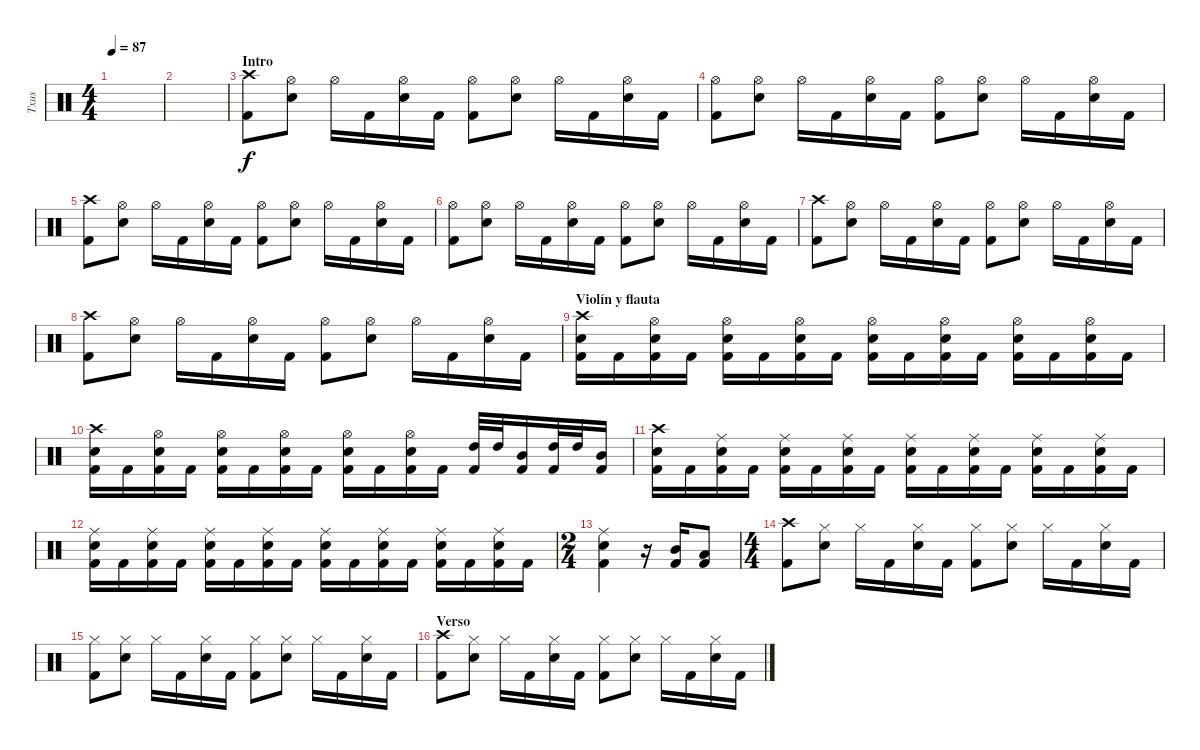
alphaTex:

\track ("Txus" "Txus") {instrument percussion}
\staff {score}
\articulation defaults
\ts (4 4)
\tempo 87
\clef neutral
\ks c
|
|
\section ("" "Intro")
("Kick (hit) 2" "Crash high (hit)").8 ("Electric Snare (hit)" "Hi-Hat (open)").8 "Hi-Hat (open)".16 "Kick (hit) 2".16 ("Electric Snare (hit)" "Hi-Hat (open)").16 "Kick (hit) 2".16 ("Kick (hit) 2" "Hi-Hat (open)").8 ("Electric Snare (hit)" "Hi-Hat (open)").8 "Hi-Hat (open)".16 "Kick (hit) 2".16 ("Electric Snare (hit)" "Hi-Hat (open)").16 "Kick (hit) 2".16 |
("Kick (hit) 2" "Hi-Hat (open)").8 ("Electric Snare (hit)" "Hi-Hat (open)").8 "Hi-Hat (open)".16 "Kick (hit) 2".16 ("Electric Snare (hit)" "Hi-Hat (open)").16 "Kick (hit) 2".16 ("Kick (hit) 2" "Hi-Hat (open)").8 ("Electric Snare (hit)" "Hi-Hat (open)").8 "Hi-Hat (open)".16 "Kick (hit) 2".16 ("Electric Snare (hit)" "Hi-Hat (open)").16 "Kick (hit) 2".16 |
("Kick (hit) 2" "Crash high (hit)").8 ("Electric Snare (hit)" "Hi-Hat (open)").8 "Hi-Hat (open)".16 "Kick (hit) 2".16 ("Electric Snare (hit)" "Hi-Hat (open)").16 "Kick (hit) 2".16 ("Kick (hit) 2" "Hi-Hat (open)").8 ("Electric Snare (hit)" "Hi-Hat (open)").8 "Hi-Hat (open)".16 "Kick (hit) 2".16 ("Electric Snare (hit)" "Hi-Hat (open)").16 "Kick (hit) 2".16 |
("Kick (hit) 2" "Hi-Hat (open)").8 ("Electric Snare (hit)" "Hi-Hat (open)").8 "Hi-Hat (open)".16 "Kick (hit) 2".16 ("Electric Snare (hit)" "Hi-Hat (open)").16 "Kick (hit) 2".16 ("Kick (hit) 2" "Hi-Hat (open)").8 ("Electric Snare (hit)" "Hi-Hat (open)").8 "Hi-Hat (open)".16 "Kick (hit) 2".16 ("Electric Snare (hit)" "Hi-Hat (open)").16 "Kick (hit) 2".16 |
("Kick (hit) 2" "Crash high (hit)").8 ("Electric Snare (hit)" "Hi-Hat (open)").8 "Hi-Hat (open)".16 "Kick (hit) 2".16 ("Electric Snare (hit)" "Hi-Hat (open)").16 "Kick (hit) 2".16 ("Kick (hit) 2" "Hi-Hat (open)").8 ("Electric Snare (hit)" "Hi-Hat (open)").8 "Hi-Hat (open)".16 "Kick (hit) 2".16 ("Electric Snare (hit)" "Hi-Hat (open)").16 "Kick (hit) 2".16 |
("Kick (hit) 2" "Crash high (hit)").8 ("Electric Snare (hit)" "Hi-Hat (open)").8 "Hi-Hat (open)".16 "Kick (hit) 2".16 ("Electric Snare (hit)" "Hi-Hat (open)").16 "Kick (hit) 2".16 ("Kick (hit) 2" "Hi-Hat (open)").8 ("Electric Snare (hit)" "Hi-Hat (open)").8 "Hi-Hat (open)".16 "Kick (hit) 2".16 ("Electric Snare (hit)" "Hi-Hat (open)").16 "Kick (hit) 2".16 |
\section ("" "Violín y flauta")
("Kick (hit) 2" "Electric Snare (hit)" "Crash high (hit)").16 "Kick (hit) 2".16 ("Kick (hit) 2" "Electric Snare (hit)" "Hi-Hat (open)").16 "Kick (hit) 2".16 ("Kick (hit) 2" "Electric Snare (hit)" "Hi-Hat (open)").16 "Kick (hit) 2".16 ("Kick (hit) 2" "Electric Snare (hit)" "Hi-Hat (open)").16 "Kick (hit) 2".16 ("Kick (hit) 2" "Electric Snare (hit)" "Hi-Hat (open)").16 "Kick (hit) 2".16 ("Kick (hit) 2" "Electric Snare (hit)" "Hi-Hat (open)").16 "Kick (hit) 2".16 ("Kick (hit) 2" "Electric Snare (hit)" "Hi-Hat (open)").16 "Kick (hit) 2".16 ("Kick (hit) 2" "Electric Snare (hit)" "Hi-Hat (open)").16 "Kick (hit) 2".16 |
("Kick (hit) 2" "Electric Snare (hit)" "Crash high (hit)").16 "Kick (hit) 2".16 ("Kick (hit) 2" "Electric Snare (hit)" "Hi-Hat (open)").16 "Kick (hit) 2".16 ("Kick (hit) 2" "Electric Snare (hit)" "Hi-Hat (open)").16 "Kick (hit) 2".16 ("Kick (hit) 2" "Electric Snare (hit)" "Hi-Hat (open)").16 "Kick (hit) 2".16 ("Kick (hit) 2" "Electric Snare (hit)" "Hi-Hat (open)").16 "Kick (hit) 2".16 ("Kick (hit) 2" "Electric Snare (hit)" "Hi-Hat (open)").16 "Kick (hit) 2".16 ("Kick (hit) 2" "High Tom (hit)").32 "High Tom (hit)".32 ("Kick (hit) 2" "Mid Tom (hit)").16 ("Kick (hit) 2" "High Tom (hit)").32 "High Tom (hit)".32 ("Kick (hit) 2" "Mid Tom (hit)").16 |
("Kick (hit) 2" "Electric Snare (hit)" "Crash high (hit)").16 "Kick (hit) 2".16 ("Kick (hit) 2" "Electric Snare (hit)" "Ride (middle)").16 "Kick (hit) 2".16 ("Kick (hit) 2" "Electric Snare (hit)" "Ride (middle)").16 "Kick (hit) 2".16 ("Kick (hit) 2" "Electric Snare (hit)" "Ride (middle)").16 "Kick (hit) 2".16 ("Kick (hit) 2" "Electric Snare (hit)" "Ride (middle)").16 "Kick (hit) 2".16 ("Kick (hit) 2" "Electric Snare (hit)" "Ride (middle)").16 "Kick (hit) 2".16 ("Kick (hit) 2" "Electric Snare (hit)" "Ride (middle)").16 "Kick (hit) 2".16 ("Kick (hit) 2" "Electric Snare (hit)" "Ride (middle)").16 "Kick (hit) 2".16 |
("Kick (hit) 2" "Electric Snare (hit)" "Ride (middle)").16 "Kick (hit) 2".16 ("Kick (hit) 2" "Electric Snare (hit)" "Ride (middle)").16 "Kick (hit) 2".16 ("Kick (hit) 2" "Electric Snare (hit)" "Ride (middle)").16 "Kick (hit) 2".16 ("Kick (hit) 2" "Electric Snare (hit)" "Ride (middle)").16 "Kick (hit) 2".16 ("Kick (hit) 2" "Electric Snare (hit)" "Ride (middle)").16 "Kick (hit) 2".16 ("Kick (hit) 2" "Electric Snare (hit)" "Ride (middle)").16 "Kick (hit) 2".16 ("Kick (hit) 2" "Electric Snare (hit)" "Ride (middle)").16 "Kick (hit) 2".16 ("Kick (hit) 2" "Electric Snare (hit)" "Ride (middle)").16 "Kick (hit) 2".16 |
\ts (2 4)
("Kick (hit) 2" "Electric Snare (hit)" "Ride (middle)").4 r.16 ("Kick (hit) 2" "Mid Tom (hit)").16 ("Kick (hit) 2" "Low Tom (hit)").8 |
\ts (4 4)
("Kick (hit) 2" "Crash high (hit)").8 ("Electric Snare (hit)" "Hi-Hat (closed)").8 "Hi-Hat (closed)".16 "Kick (hit) 2".16 ("Electric Snare (hit)" "Hi-Hat (closed)").16 "Kick (hit) 2".16 ("Kick (hit) 2" "Hi-Hat (closed)").8 ("Electric Snare (hit)" "Hi-Hat (closed)").8 "Hi-Hat (closed)".16 "Kick (hit) 2".16 ("Electric Snare (hit)" "Hi-Hat (closed)").16 "Kick (hit) 2".16 |
("Kick (hit) 2" "Hi-Hat (closed)").8 ("Electric Snare (hit)" "Hi-Hat (closed)").8 "Hi-Hat (closed)".16 "Kick (hit) 2".16 ("Electric Snare (hit)" "Hi-Hat (closed)").16 "Kick (hit) 2".16 ("Kick (hit) 2" "Hi-Hat (closed)").8 ("Electric Snare (hit)" "Hi-Hat (closed)").8 "Hi-Hat (closed)".16 "Kick (hit) 2".16 ("Electric Snare (hit)" "Hi-Hat (closed)").16 "Kick (hit) 2".16 |
\section ("" "Verso")
("Kick (hit) 2" "Crash high (hit)").8 ("Electric Snare (hit)" "Hi-Hat (closed)").8 "Hi-Hat (closed)".16 "Kick (hit) 2".16 ("Electric Snare (hit)" "Hi-Hat (closed)").16 "Kick (hit) 2".16 ("Kick (hit) 2" "Hi-Hat (closed)").8 ("Electric Snare (hit)" "Hi-Hat (closed)").8 "Hi-Hat (closed)".16 "Kick (hit) 2".16 ("Electric Snare (hit)" "Hi-Hat (closed)").16 "Kick (hit) 2".16
